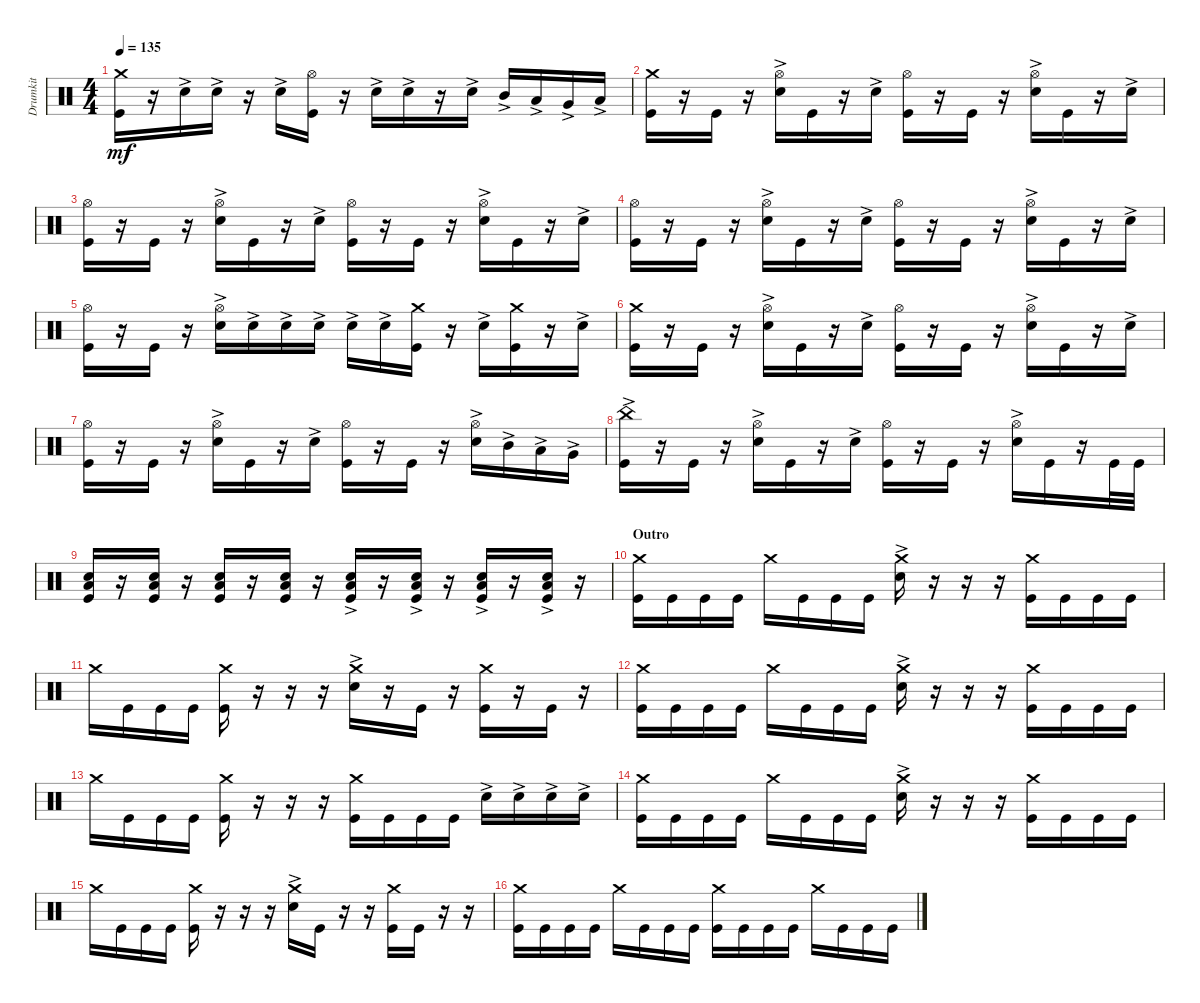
\track ("Drumkit" "Drumkit") {instrument percussion}
\staff {score}
\articulation defaults
\ts (4 4)
\tempo 135
\clef neutral
\ks c
("Kick (hit)" "Crash medium (hit)").16{dy mf} r.16 "Snare (hit) 2"{ac}.16 "Snare (hit) 2"{ac}.16 r.16 "Snare (hit) 2"{ac}.16 ("Kick (hit)" "Hi-Hat (open)").16 r.16 "Snare (hit) 2"{ac}.16 "Snare (hit) 2"{ac}.16 r.16 "Snare (hit) 2"{ac}.16 "Mid Tom (hit)"{ac}.16 "Low Tom (hit)"{ac}.16 "Very Low Tom (hit)"{ac}.16 "Low Floor Tom (hit)"{ac}.16 |
("Kick (hit)" "Crash medium (hit)").16 r.16 "Kick (hit)".16 r.16 ("Snare (hit) 2"{ac} "Hi-Hat (open)").16 "Kick (hit)".16 r.16 "Snare (hit) 2"{ac}.16 ("Kick (hit)" "Hi-Hat (open)").16 r.16 "Kick (hit)".16 r.16 ("Snare (hit) 2"{ac} "Hi-Hat (open)").16 "Kick (hit)".16 r.16 "Snare (hit) 2"{ac}.16 |
("Kick (hit)" "Hi-Hat (open)").16 r.16 "Kick (hit)".16 r.16 ("Snare (hit) 2"{ac} "Hi-Hat (open)").16 "Kick (hit)".16 r.16 "Snare (hit) 2"{ac}.16 ("Kick (hit)" "Hi-Hat (open)").16 r.16 "Kick (hit)".16 r.16 ("Snare (hit) 2"{ac} "Hi-Hat (open)").16 "Kick (hit)".16 r.16 "Snare (hit) 2"{ac}.16 |
("Kick (hit)" "Hi-Hat (open)").16 r.16 "Kick (hit)".16 r.16 ("Snare (hit) 2"{ac} "Hi-Hat (open)").16 "Kick (hit)".16 r.16 "Snare (hit) 2"{ac}.16 ("Kick (hit)" "Hi-Hat (open)").16 r.16 "Kick (hit)".16 r.16 ("Snare (hit) 2"{ac} "Hi-Hat (open)").16 "Kick (hit)".16 r.16 "Snare (hit) 2"{ac}.16 |
("Kick (hit)" "Hi-Hat (open)").16 r.16 "Kick (hit)".16 r.16 ("Snare (hit) 2"{ac} "Hi-Hat (open)"{ac}).16 "Snare (hit) 2"{ac}.16 "Snare (hit) 2"{ac}.16 "Snare (hit) 2"{ac}.16 "Snare (hit) 2"{ac}.16 "Snare (hit) 2"{ac}.16 ("Kick (hit)" "Crash medium (hit)").16 r.16 "Snare (hit) 2"{ac}.16 ("Kick (hit)" "Crash medium (hit)").16 r.16 "Snare (hit) 2"{ac}.16 |
("Kick (hit)" "Crash medium (hit)").16 r.16 "Kick (hit)".16 r.16 ("Snare (hit) 2"{ac} "Hi-Hat (open)").16 "Kick (hit)".16 r.16 "Snare (hit) 2"{ac}.16 ("Kick (hit)" "Hi-Hat (open)").16 r.16 "Kick (hit)".16 r.16 ("Snare (hit) 2"{ac} "Hi-Hat (open)").16 "Kick (hit)".16 r.16 "Snare (hit) 2"{ac}.16 |
("Kick (hit)" "Hi-Hat (open)").16 r.16 "Kick (hit)".16 r.16 ("Snare (hit) 2"{ac} "Hi-Hat (open)").16 "Kick (hit)".16 r.16 "Snare (hit) 2"{ac}.16 ("Kick (hit)" "Hi-Hat (open)").16 r.16 "Kick (hit)".16 r.16 ("Snare (hit) 2"{ac} "Hi-Hat (open)").16 "Mid Tom (hit)"{ac}.16 "Low Tom (hit)"{ac}.16 "Very Low Tom (hit)"{ac}.16 |
("Kick (hit)" "China (hit)"{ac}).16 r.16 "Kick (hit)".16 r.16 ("Snare (hit) 2"{ac} "Hi-Hat (open)").16 "Kick (hit)".16 r.16 "Snare (hit) 2"{ac}.16 ("Kick (hit)" "Hi-Hat (open)").16 r.16 "Kick (hit)".16 r.16 ("Snare (hit) 2"{ac} "Hi-Hat (open)").16 "Kick (hit)".16 r.16 "Kick (hit)".32 "Kick (hit)".32 |
("Kick (hit)" "Low Floor Tom (hit)" "Snare (hit) 2").16 r.16 ("Kick (hit)" "Low Floor Tom (hit)" "Snare (hit) 2").16 r.16 ("Kick (hit)" "Low Floor Tom (hit)" "Snare (hit) 2").16 r.16 ("Kick (hit)" "Low Floor Tom (hit)" "Snare (hit) 2").16 r.16 ("Kick (hit)" "Low Floor Tom (hit)"{ac} "Snare (hit) 2"{ac}).16 r.16 ("Kick (hit)" "Low Floor Tom (hit)"{ac} "Snare (hit) 2"{ac}).16 r.16 ("Kick (hit)" "Low Floor Tom (hit)"{ac} "Snare (hit) 2"{ac}).16 r.16 ("Kick (hit)" "Low Floor Tom (hit)"{ac} "Snare (hit) 2"{ac}).16 r.16 |
\section ("" "Outro")
("Crash medium (hit)" "Kick (hit)").16 "Kick (hit)".16 "Kick (hit)".16 "Kick (hit)".16 "Crash medium (hit)".16 "Kick (hit)".16 "Kick (hit)".16 "Kick (hit)".16 ("Crash medium (hit)" "Snare (hit) 2"{ac}).16 r.16 r.16 r.16 ("Crash medium (hit)" "Kick (hit)").16 "Kick (hit)".16 "Kick (hit)".16 "Kick (hit)".16 |
"Crash medium (hit)".16 "Kick (hit)".16 "Kick (hit)".16 "Kick (hit)".16 ("Crash medium (hit)" "Kick (hit)").16 r.16 r.16 r.16 ("Crash medium (hit)" "Snare (hit) 2"{ac}).16 r.16 "Kick (hit)".16 r.16 ("Crash medium (hit)" "Kick (hit)").16 r.16 "Kick (hit)".16 r.16 |
("Crash medium (hit)" "Kick (hit)").16 "Kick (hit)".16 "Kick (hit)".16 "Kick (hit)".16 "Crash medium (hit)".16 "Kick (hit)".16 "Kick (hit)".16 "Kick (hit)".16 ("Crash medium (hit)" "Snare (hit) 2"{ac}).16 r.16 r.16 r.16 ("Crash medium (hit)" "Kick (hit)").16 "Kick (hit)".16 "Kick (hit)".16 "Kick (hit)".16 |
"Crash medium (hit)".16 "Kick (hit)".16 "Kick (hit)".16 "Kick (hit)".16 ("Crash medium (hit)" "Kick (hit)").16 r.16 r.16 r.16 ("Kick (hit)" "Crash medium (hit)").16 "Kick (hit)".16 "Kick (hit)".16 "Kick (hit)".16 "Snare (hit) 2"{ac}.16 "Snare (hit) 2"{ac}.16 "Snare (hit) 2"{ac}.16 "Snare (hit) 2"{ac}.16 |
("Crash medium (hit)" "Kick (hit)").16 "Kick (hit)".16 "Kick (hit)".16 "Kick (hit)".16 "Crash medium (hit)".16 "Kick (hit)".16 "Kick (hit)".16 "Kick (hit)".16 ("Crash medium (hit)" "Snare (hit) 2"{ac}).16 r.16 r.16 r.16 ("Crash medium (hit)" "Kick (hit)").16 "Kick (hit)".16 "Kick (hit)".16 "Kick (hit)".16 |
"Crash medium (hit)".16 "Kick (hit)".16 "Kick (hit)".16 "Kick (hit)".16 ("Crash medium (hit)" "Kick (hit)").16 r.16 r.16 r.16 ("Crash medium (hit)" "Snare (hit) 2"{ac}).16 "Kick (hit)".16 r.16 r.16 ("Crash medium (hit)" "Kick (hit)").16 "Kick (hit)".16 r.16 r.16 |
("Crash medium (hit)" "Kick (hit)").16 "Kick (hit)".16 "Kick (hit)".16 "Kick (hit)".16 "Crash medium (hit)".16 "Kick (hit)".16 "Kick (hit)".16 "Kick (hit)".16 ("Crash medium (hit)" "Kick (hit)").16 "Kick (hit)".16 "Kick (hit)".16 "Kick (hit)".16 "Crash medium (hit)".16 "Kick (hit)".16 "Kick (hit)".16 "Kick (hit)".16
